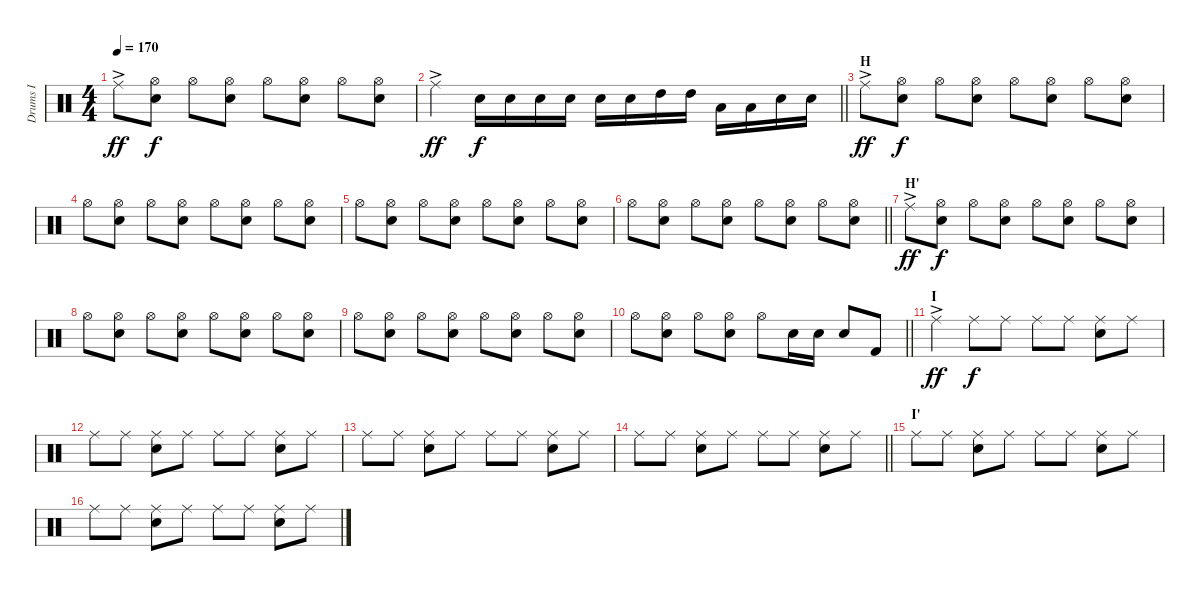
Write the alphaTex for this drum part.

\track ("Drums I" "Drums I") {instrument percussion}
\staff {score}
\articulation defaults
\ts (4 4)
\tempo 170
\clef neutral
\ks c "Ride (middle)"{ac}.8{dy ff}
("Hi-Hat (open)" "Snare (hit) 2").8{dy f} "Hi-Hat (open)".8 ("Hi-Hat (open)" "Snare (hit) 2").8 "Hi-Hat (open)".8 ("Hi-Hat (open)" "Snare (hit) 2").8 "Hi-Hat (open)".8 ("Hi-Hat (open)" "Snare (hit) 2").8 |
\barLineRight lightlight "Ride (middle)"{ac}.4{dy ff} "Snare (hit) 2".16{dy f} "Snare (hit) 2".16 "Snare (hit) 2".16 "Snare (hit) 2".16 "Snare (hit) 2".16 "Snare (hit) 2".16 "High Tom (hit)".16 "High Tom (hit)".16 "Low Tom (hit)".16 "Low Tom (hit)".16 "Snare (hit) 2".16 "Snare (hit) 2".16
|
\section ("" "H")
"Ride (middle)"{ac}.8{dy ff} ("Hi-Hat (open)" "Snare (hit) 2").8{dy f} "Hi-Hat (open)".8 ("Hi-Hat (open)" "Snare (hit) 2").8 "Hi-Hat (open)".8 ("Hi-Hat (open)" "Snare (hit) 2").8 "Hi-Hat (open)".8 ("Hi-Hat (open)" "Snare (hit) 2").8 |
"Hi-Hat (open)".8 ("Hi-Hat (open)" "Snare (hit) 2").8 "Hi-Hat (open)".8 ("Hi-Hat (open)" "Snare (hit) 2").8 "Hi-Hat (open)".8 ("Hi-Hat (open)" "Snare (hit) 2").8 "Hi-Hat (open)".8 ("Hi-Hat (open)" "Snare (hit) 2").8 |
"Hi-Hat (open)".8 ("Hi-Hat (open)" "Snare (hit) 2").8 "Hi-Hat (open)".8 ("Hi-Hat (open)" "Snare (hit) 2").8 "Hi-Hat (open)".8 ("Hi-Hat (open)" "Snare (hit) 2").8 "Hi-Hat (open)".8 ("Hi-Hat (open)" "Snare (hit) 2").8 |
\barLineRight lightlight "Hi-Hat (open)".8
("Hi-Hat (open)" "Snare (hit) 2").8 "Hi-Hat (open)".8 ("Hi-Hat (open)" "Snare (hit) 2").8 "Hi-Hat (open)".8 ("Hi-Hat (open)" "Snare (hit) 2").8 "Hi-Hat (open)".8 ("Hi-Hat (open)" "Snare (hit) 2").8 |
\section ("" "H'")
"Ride (middle)"{ac}.8{dy ff} ("Hi-Hat (open)" "Snare (hit) 2").8{dy f} "Hi-Hat (open)".8 ("Hi-Hat (open)" "Snare (hit) 2").8 "Hi-Hat (open)".8 ("Hi-Hat (open)" "Snare (hit) 2").8 "Hi-Hat (open)".8 ("Hi-Hat (open)" "Snare (hit) 2").8 |
"Hi-Hat (open)".8 ("Hi-Hat (open)" "Snare (hit) 2").8 "Hi-Hat (open)".8 ("Hi-Hat (open)" "Snare (hit) 2").8 "Hi-Hat (open)".8 ("Hi-Hat (open)" "Snare (hit) 2").8 "Hi-Hat (open)".8 ("Hi-Hat (open)" "Snare (hit) 2").8 |
"Hi-Hat (open)".8 ("Hi-Hat (open)" "Snare (hit) 2").8 "Hi-Hat (open)".8 ("Hi-Hat (open)" "Snare (hit) 2").8 "Hi-Hat (open)".8 ("Hi-Hat (open)" "Snare (hit) 2").8 "Hi-Hat (open)".8 ("Hi-Hat (open)" "Snare (hit) 2").8 |
\barLineRight lightlight "Hi-Hat (open)".8
("Hi-Hat (open)" "Snare (hit) 2").8 "Hi-Hat (open)".8 ("Hi-Hat (open)" "Snare (hit) 2").8 "Hi-Hat (open)".8 "Snare (hit) 2".16 "Snare (hit) 2".16 "Snare (hit) 2".8 "Kick (hit) 2".8 |
\section ("" "I")
"Ride (middle)"{ac}.4{dy ff} "Ride (middle)".8{dy f} "Ride (middle)".8 "Ride (middle)".8 "Ride (middle)".8 ("Ride (middle)" "Snare (hit) 2").8 "Ride (middle)".8 |
"Ride (middle)".8 "Ride (middle)".8 ("Ride (middle)" "Snare (hit) 2").8 "Ride (middle)".8 "Ride (middle)".8 "Ride (middle)".8 ("Ride (middle)" "Snare (hit) 2").8 "Ride (middle)".8 |
"Ride (middle)".8 "Ride (middle)".8 ("Ride (middle)" "Snare (hit) 2").8 "Ride (middle)".8 "Ride (middle)".8 "Ride (middle)".8 ("Ride (middle)" "Snare (hit) 2").8 "Ride (middle)".8 |
\barLineRight lightlight "Ride (middle)".8 "Ride (middle)".8
("Ride (middle)" "Snare (hit) 2").8 "Ride (middle)".8 "Ride (middle)".8 "Ride (middle)".8 ("Ride (middle)" "Snare (hit) 2").8 "Ride (middle)".8 |
\section ("" "I'")
"Ride (middle)".8 "Ride (middle)".8 ("Ride (middle)" "Snare (hit) 2").8 "Ride (middle)".8 "Ride (middle)".8 "Ride (middle)".8 ("Ride (middle)" "Snare (hit) 2").8 "Ride (middle)".8 |
"Ride (middle)".8 "Ride (middle)".8 ("Ride (middle)" "Snare (hit) 2").8 "Ride (middle)".8 "Ride (middle)".8 "Ride (middle)".8 ("Ride (middle)" "Snare (hit) 2").8 "Ride (middle)".8
